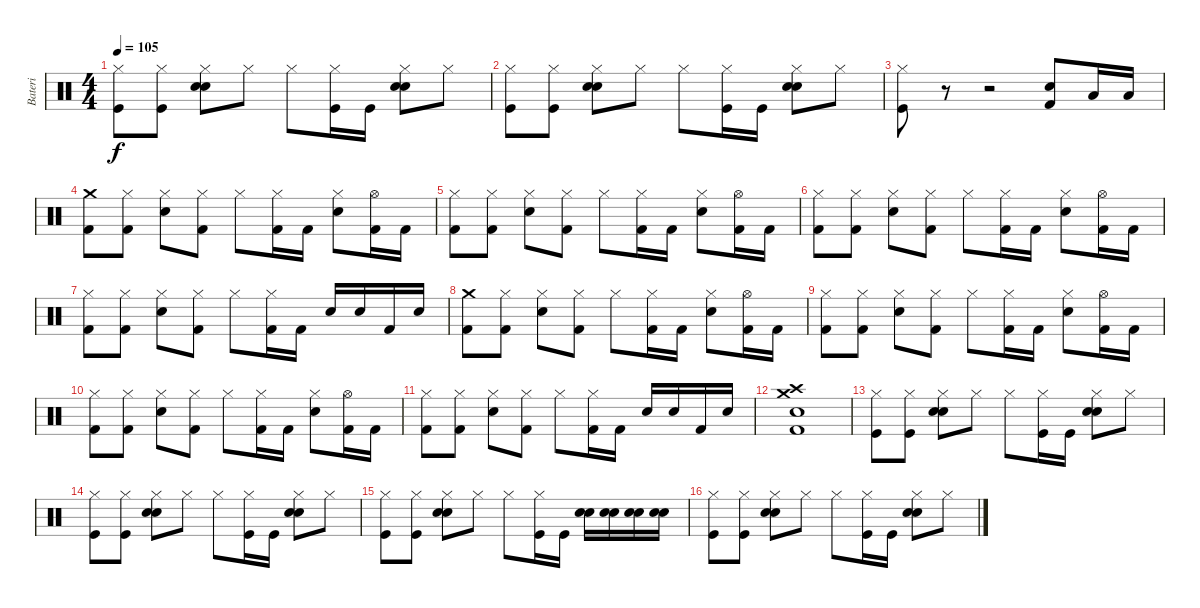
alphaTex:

\track ("Bateri" "Bateri") {instrument percussion}
\staff {score}
\articulation defaults
\ts (4 4)
\tempo 105
\clef neutral
\ks c
("Hi-Hat (closed)" "Kick (hit)").8{dy f} ("Hi-Hat (closed)" "Kick (hit)").8 ("Hi-Hat (closed)" "Hand Clap (hit)" "Snare (hit) 2").8 "Hi-Hat (closed)".8 "Hi-Hat (closed)".8 ("Hi-Hat (closed)" "Kick (hit)").16 "Kick (hit)".16 ("Hi-Hat (closed)" "Hand Clap (hit)" "Snare (hit) 2").8 "Hi-Hat (closed)".8 |
("Hi-Hat (closed)" "Kick (hit)").8 ("Hi-Hat (closed)" "Kick (hit)").8 ("Hi-Hat (closed)" "Hand Clap (hit)" "Snare (hit) 2").8 "Hi-Hat (closed)".8 "Hi-Hat (closed)".8 ("Hi-Hat (closed)" "Kick (hit)").16 "Kick (hit)".16 ("Hi-Hat (closed)" "Hand Clap (hit)" "Snare (hit) 2").8 "Hi-Hat (closed)".8 |
("Hi-Hat (closed)" "Kick (hit)").8 r.8 r.2 ("Electric Snare (hit)" "Kick (hit) 2").8 "Low Tom (hit)".16 "Low Tom (hit)".16 |
("Crash medium (hit)" "Kick (hit) 2").8 ("Hi-Hat (closed)" "Kick (hit) 2").8 ("Hi-Hat (closed)" "Electric Snare (hit)").8 ("Hi-Hat (closed)" "Kick (hit) 2").8 "Hi-Hat (closed)".8 ("Hi-Hat (closed)" "Kick (hit) 2").16 "Kick (hit) 2".16 ("Hi-Hat (closed)" "Electric Snare (hit)").8 ("Hi-Hat (open)" "Kick (hit) 2").16 "Kick (hit) 2".16 |
("Hi-Hat (closed)" "Kick (hit) 2").8 ("Hi-Hat (closed)" "Kick (hit) 2").8 ("Hi-Hat (closed)" "Electric Snare (hit)").8 ("Hi-Hat (closed)" "Kick (hit) 2").8 "Hi-Hat (closed)".8 ("Hi-Hat (closed)" "Kick (hit) 2").16 "Kick (hit) 2".16 ("Hi-Hat (closed)" "Electric Snare (hit)").8 ("Hi-Hat (open)" "Kick (hit) 2").16 "Kick (hit) 2".16 |
("Hi-Hat (closed)" "Kick (hit) 2").8 ("Hi-Hat (closed)" "Kick (hit) 2").8 ("Hi-Hat (closed)" "Electric Snare (hit)").8 ("Hi-Hat (closed)" "Kick (hit) 2").8 "Hi-Hat (closed)".8 ("Hi-Hat (closed)" "Kick (hit) 2").16 "Kick (hit) 2".16 ("Hi-Hat (closed)" "Electric Snare (hit)").8 ("Hi-Hat (open)" "Kick (hit) 2").16 "Kick (hit) 2".16 |
("Hi-Hat (closed)" "Kick (hit) 2").8 ("Hi-Hat (closed)" "Kick (hit) 2").8 ("Hi-Hat (closed)" "Electric Snare (hit)").8 ("Hi-Hat (closed)" "Kick (hit) 2").8 "Hi-Hat (closed)".8 ("Hi-Hat (closed)" "Kick (hit) 2").16 "Kick (hit) 2".16 "Electric Snare (hit)".16 "Electric Snare (hit)".16 "Kick (hit) 2".16 "Electric Snare (hit)".16 |
("Crash medium (hit)" "Kick (hit) 2").8 ("Hi-Hat (closed)" "Kick (hit) 2").8 ("Hi-Hat (closed)" "Electric Snare (hit)").8 ("Hi-Hat (closed)" "Kick (hit) 2").8 "Hi-Hat (closed)".8 ("Hi-Hat (closed)" "Kick (hit) 2").16 "Kick (hit) 2".16 ("Hi-Hat (closed)" "Electric Snare (hit)").8 ("Hi-Hat (open)" "Kick (hit) 2").16 "Kick (hit) 2".16 |
("Hi-Hat (closed)" "Kick (hit) 2").8 ("Hi-Hat (closed)" "Kick (hit) 2").8 ("Hi-Hat (closed)" "Electric Snare (hit)").8 ("Hi-Hat (closed)" "Kick (hit) 2").8 "Hi-Hat (closed)".8 ("Hi-Hat (closed)" "Kick (hit) 2").16 "Kick (hit) 2".16 ("Hi-Hat (closed)" "Electric Snare (hit)").8 ("Hi-Hat (open)" "Kick (hit) 2").16 "Kick (hit) 2".16 |
("Hi-Hat (closed)" "Kick (hit) 2").8 ("Hi-Hat (closed)" "Kick (hit) 2").8 ("Hi-Hat (closed)" "Electric Snare (hit)").8 ("Hi-Hat (closed)" "Kick (hit) 2").8 "Hi-Hat (closed)".8 ("Hi-Hat (closed)" "Kick (hit) 2").16 "Kick (hit) 2".16 ("Hi-Hat (closed)" "Electric Snare (hit)").8 ("Hi-Hat (open)" "Kick (hit) 2").16 "Kick (hit) 2".16 |
("Hi-Hat (closed)" "Kick (hit) 2").8 ("Hi-Hat (closed)" "Kick (hit) 2").8 ("Hi-Hat (closed)" "Electric Snare (hit)").8 ("Hi-Hat (closed)" "Kick (hit) 2").8 "Hi-Hat (closed)".8 ("Hi-Hat (closed)" "Kick (hit) 2").16 "Kick (hit) 2".16 "Electric Snare (hit)".16 "Electric Snare (hit)".16 "Kick (hit) 2".16 "Electric Snare (hit)".16 |
("Electric Snare (hit)" "Crash medium (hit)" "Crash high (hit)" "Kick (hit) 2").1 |
("Hi-Hat (closed)" "Kick (hit)").8 ("Hi-Hat (closed)" "Kick (hit)").8 ("Hi-Hat (closed)" "Hand Clap (hit)" "Snare (hit) 2").8 "Hi-Hat (closed)".8 "Hi-Hat (closed)".8 ("Hi-Hat (closed)" "Kick (hit)").16 "Kick (hit)".16 ("Hi-Hat (closed)" "Hand Clap (hit)" "Snare (hit) 2").8 "Hi-Hat (closed)".8 |
("Hi-Hat (closed)" "Kick (hit)").8 ("Hi-Hat (closed)" "Kick (hit)").8 ("Hi-Hat (closed)" "Hand Clap (hit)" "Snare (hit) 2").8 "Hi-Hat (closed)".8 "Hi-Hat (closed)".8 ("Hi-Hat (closed)" "Kick (hit)").16 "Kick (hit)".16 ("Hi-Hat (closed)" "Hand Clap (hit)" "Snare (hit) 2").8 "Hi-Hat (closed)".8 |
("Hi-Hat (closed)" "Kick (hit)").8 ("Hi-Hat (closed)" "Kick (hit)").8 ("Hi-Hat (closed)" "Hand Clap (hit)" "Snare (hit) 2").8 "Hi-Hat (closed)".8 "Hi-Hat (closed)".8 ("Hi-Hat (closed)" "Kick (hit)").16 "Kick (hit)".16 ("Hand Clap (hit)" "Snare (hit) 2").16 ("Hand Clap (hit)" "Snare (hit) 2").16 ("Hand Clap (hit)" "Snare (hit) 2").16 ("Hand Clap (hit)" "Snare (hit) 2").16 |
("Hi-Hat (closed)" "Kick (hit)").8 ("Hi-Hat (closed)" "Kick (hit)").8 ("Hi-Hat (closed)" "Hand Clap (hit)" "Snare (hit) 2").8 "Hi-Hat (closed)".8 "Hi-Hat (closed)".8 ("Hi-Hat (closed)" "Kick (hit)").16 "Kick (hit)".16 ("Hi-Hat (closed)" "Hand Clap (hit)" "Snare (hit) 2").8 "Hi-Hat (closed)".8
